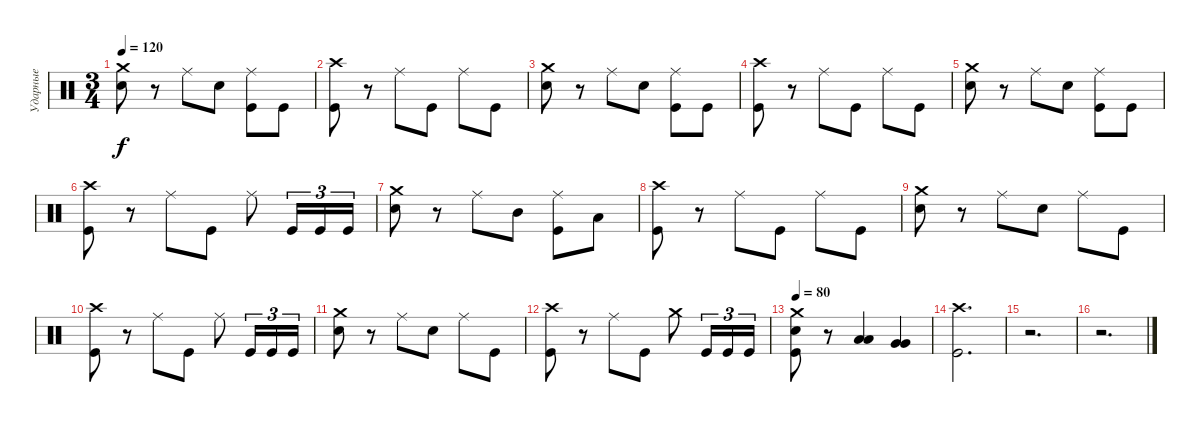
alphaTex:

\track ("Ударные" "Ударные") {instrument percussion}
\staff {score}
\articulation defaults
\ts (3 4)
\tempo 120
\clef neutral
\ks c
("Crash medium (hit)" "Snare (hit) 2").8{dy f} r.8 "Ride (middle)".8 "Snare (hit) 2".8 ("Ride (middle)" "Kick (hit)").8 "Kick (hit)".8 |
("Crash high (hit)" "Kick (hit)").8 r.8 "Ride (middle)".8 "Kick (hit)".8 "Ride (middle)".8 "Kick (hit)".8 |
("Crash medium (hit)" "Snare (hit) 2").8 r.8 "Ride (middle)".8 "Snare (hit) 2".8 ("Ride (middle)" "Kick (hit)").8 "Kick (hit)".8 |
("Crash high (hit)" "Kick (hit)").8 r.8 "Ride (middle)".8 "Kick (hit)".8 "Ride (middle)".8 "Kick (hit)".8 |
("Crash medium (hit)" "Snare (hit) 2").8 r.8 "Ride (middle)".8 "Snare (hit) 2".8 ("Ride (middle)" "Kick (hit)").8 "Kick (hit)".8 |
("Crash high (hit)" "Kick (hit)").8 r.8 "Ride (middle)".8 "Kick (hit)".8 "Ride (middle)".8 "Kick (hit)".16{tu (3 2)} "Kick (hit)".16{tu (3 2)} "Kick (hit)".16{tu (3 2)} |
("Crash medium (hit)" "Snare (hit) 2").8 r.8 "Ride (middle)".8 "Mid Tom (hit)".8 ("Ride (middle)" "Kick (hit)").8 "Low Tom (hit)".8 |
("Crash high (hit)" "Kick (hit)").8 r.8 "Ride (middle)".8 "Kick (hit)".8 "Ride (middle)".8 "Kick (hit)".8 |
("Crash medium (hit)" "Snare (hit) 2").8 r.8 "Ride (middle)".8 "Snare (hit) 2".8 "Ride (middle)".8 "Kick (hit)".8 |
("Crash high (hit)" "Kick (hit)").8 r.8 "Ride (middle)".8 "Kick (hit)".8 "Ride (middle)".8 "Kick (hit)".16{tu (3 2)} "Kick (hit)".16{tu (3 2)} "Kick (hit)".16{tu (3 2)} |
("Crash medium (hit)" "Snare (hit) 2").8 r.8 "Ride (middle)".8 "Snare (hit) 2".8 "Ride (middle)".8 "Kick (hit)".8 |
("Crash high (hit)" "Kick (hit)").8 r.8 "Ride (middle)".8 "Kick (hit)".8 "Crash medium (hit)".8 "Kick (hit)".16{tu (3 2)} "Kick (hit)".16{tu (3 2)} "Kick (hit)".16{tu (3 2)} |
\tempo 80
("Crash medium (hit)" "Snare (hit) 2" "Kick (hit)").8 r.8 ("Low Tom (hit)" "Low Tom (hit)").4{bd 60} ("Very Low Tom (hit)" "Very Low Tom (hit)").4{bd 60} |
("Crash high (hit)" "Kick (hit)").2{d} |
r.2{d} |
r.2{d}
